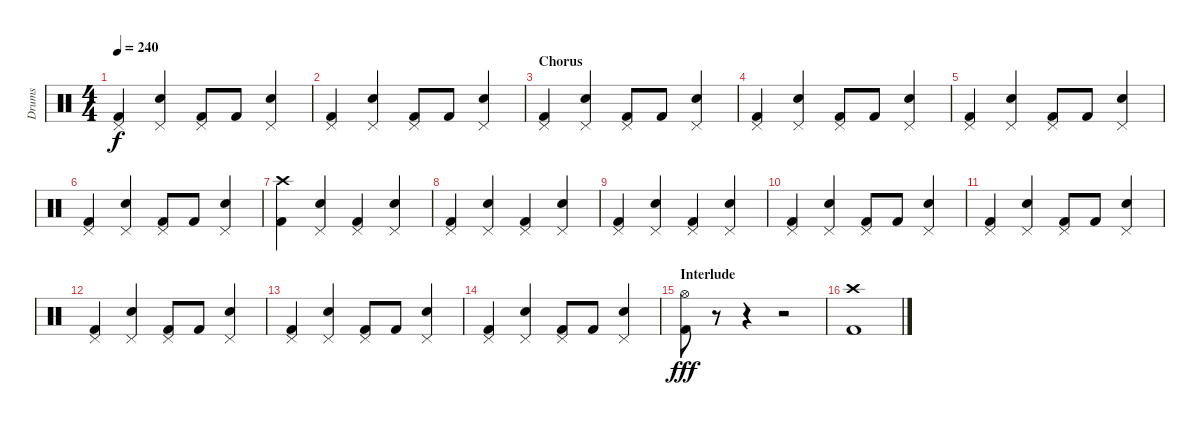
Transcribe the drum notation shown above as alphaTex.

\track ("Drums" "Drums") {instrument percussion}
\staff {score}
\articulation defaults
\ts (4 4)
\tempo 240
\clef neutral
\ks c
("Pedal Hi-Hat (hit)" "Kick (hit) 2").4{dy f} ("Pedal Hi-Hat (hit)" "Snare (hit) 2").4 ("Pedal Hi-Hat (hit)" "Kick (hit) 2").8 "Kick (hit) 2".8 ("Pedal Hi-Hat (hit)" "Snare (hit) 2").4 |
("Pedal Hi-Hat (hit)" "Kick (hit) 2").4 ("Pedal Hi-Hat (hit)" "Snare (hit) 2").4 ("Pedal Hi-Hat (hit)" "Kick (hit) 2").8 "Kick (hit) 2".8 ("Pedal Hi-Hat (hit)" "Snare (hit) 2").4 |
\section ("" "Chorus")
("Pedal Hi-Hat (hit)" "Kick (hit) 2").4 ("Pedal Hi-Hat (hit)" "Snare (hit) 2").4 ("Pedal Hi-Hat (hit)" "Kick (hit) 2").8 "Kick (hit) 2".8 ("Pedal Hi-Hat (hit)" "Snare (hit) 2").4 |
("Pedal Hi-Hat (hit)" "Kick (hit) 2").4 ("Pedal Hi-Hat (hit)" "Snare (hit) 2").4 ("Pedal Hi-Hat (hit)" "Kick (hit) 2").8 "Kick (hit) 2".8 ("Pedal Hi-Hat (hit)" "Snare (hit) 2").4 |
("Pedal Hi-Hat (hit)" "Kick (hit) 2").4 ("Pedal Hi-Hat (hit)" "Snare (hit) 2").4 ("Pedal Hi-Hat (hit)" "Kick (hit) 2").8 "Kick (hit) 2".8 ("Pedal Hi-Hat (hit)" "Snare (hit) 2").4 |
("Pedal Hi-Hat (hit)" "Kick (hit) 2").4 ("Pedal Hi-Hat (hit)" "Snare (hit) 2").4 ("Pedal Hi-Hat (hit)" "Kick (hit) 2").8 "Kick (hit) 2".8 ("Pedal Hi-Hat (hit)" "Snare (hit) 2").4 |
("Crash high (hit)" "Kick (hit) 2").4 ("Pedal Hi-Hat (hit)" "Snare (hit) 2").4 ("Pedal Hi-Hat (hit)" "Kick (hit) 2").4 ("Pedal Hi-Hat (hit)" "Snare (hit) 2").4 |
("Pedal Hi-Hat (hit)" "Kick (hit) 2").4 ("Pedal Hi-Hat (hit)" "Snare (hit) 2").4 ("Pedal Hi-Hat (hit)" "Kick (hit) 2").4 ("Pedal Hi-Hat (hit)" "Snare (hit) 2").4 |
("Pedal Hi-Hat (hit)" "Kick (hit) 2").4 ("Pedal Hi-Hat (hit)" "Snare (hit) 2").4 ("Pedal Hi-Hat (hit)" "Kick (hit) 2").4 ("Pedal Hi-Hat (hit)" "Snare (hit) 2").4 |
("Pedal Hi-Hat (hit)" "Kick (hit) 2").4 ("Pedal Hi-Hat (hit)" "Snare (hit) 2").4 ("Pedal Hi-Hat (hit)" "Kick (hit) 2").8 "Kick (hit) 2".8 ("Pedal Hi-Hat (hit)" "Snare (hit) 2").4 |
("Pedal Hi-Hat (hit)" "Kick (hit) 2").4 ("Pedal Hi-Hat (hit)" "Snare (hit) 2").4 ("Pedal Hi-Hat (hit)" "Kick (hit) 2").8 "Kick (hit) 2".8 ("Pedal Hi-Hat (hit)" "Snare (hit) 2").4 |
("Pedal Hi-Hat (hit)" "Kick (hit) 2").4 ("Pedal Hi-Hat (hit)" "Snare (hit) 2").4 ("Pedal Hi-Hat (hit)" "Kick (hit) 2").8 "Kick (hit) 2".8 ("Pedal Hi-Hat (hit)" "Snare (hit) 2").4 |
("Pedal Hi-Hat (hit)" "Kick (hit) 2").4 ("Pedal Hi-Hat (hit)" "Snare (hit) 2").4 ("Pedal Hi-Hat (hit)" "Kick (hit) 2").8 "Kick (hit) 2".8 ("Pedal Hi-Hat (hit)" "Snare (hit) 2").4 |
("Pedal Hi-Hat (hit)" "Kick (hit) 2").4 ("Pedal Hi-Hat (hit)" "Snare (hit) 2").4 ("Pedal Hi-Hat (hit)" "Kick (hit) 2").8 "Kick (hit) 2".8 ("Pedal Hi-Hat (hit)" "Snare (hit) 2").4 |
\section ("" "Interlude")
("Hi-Hat (open)" "Kick (hit) 2").8{dy fff} r.8 r.4 r.2 |
("Crash high (hit)" "Kick (hit) 2").1
